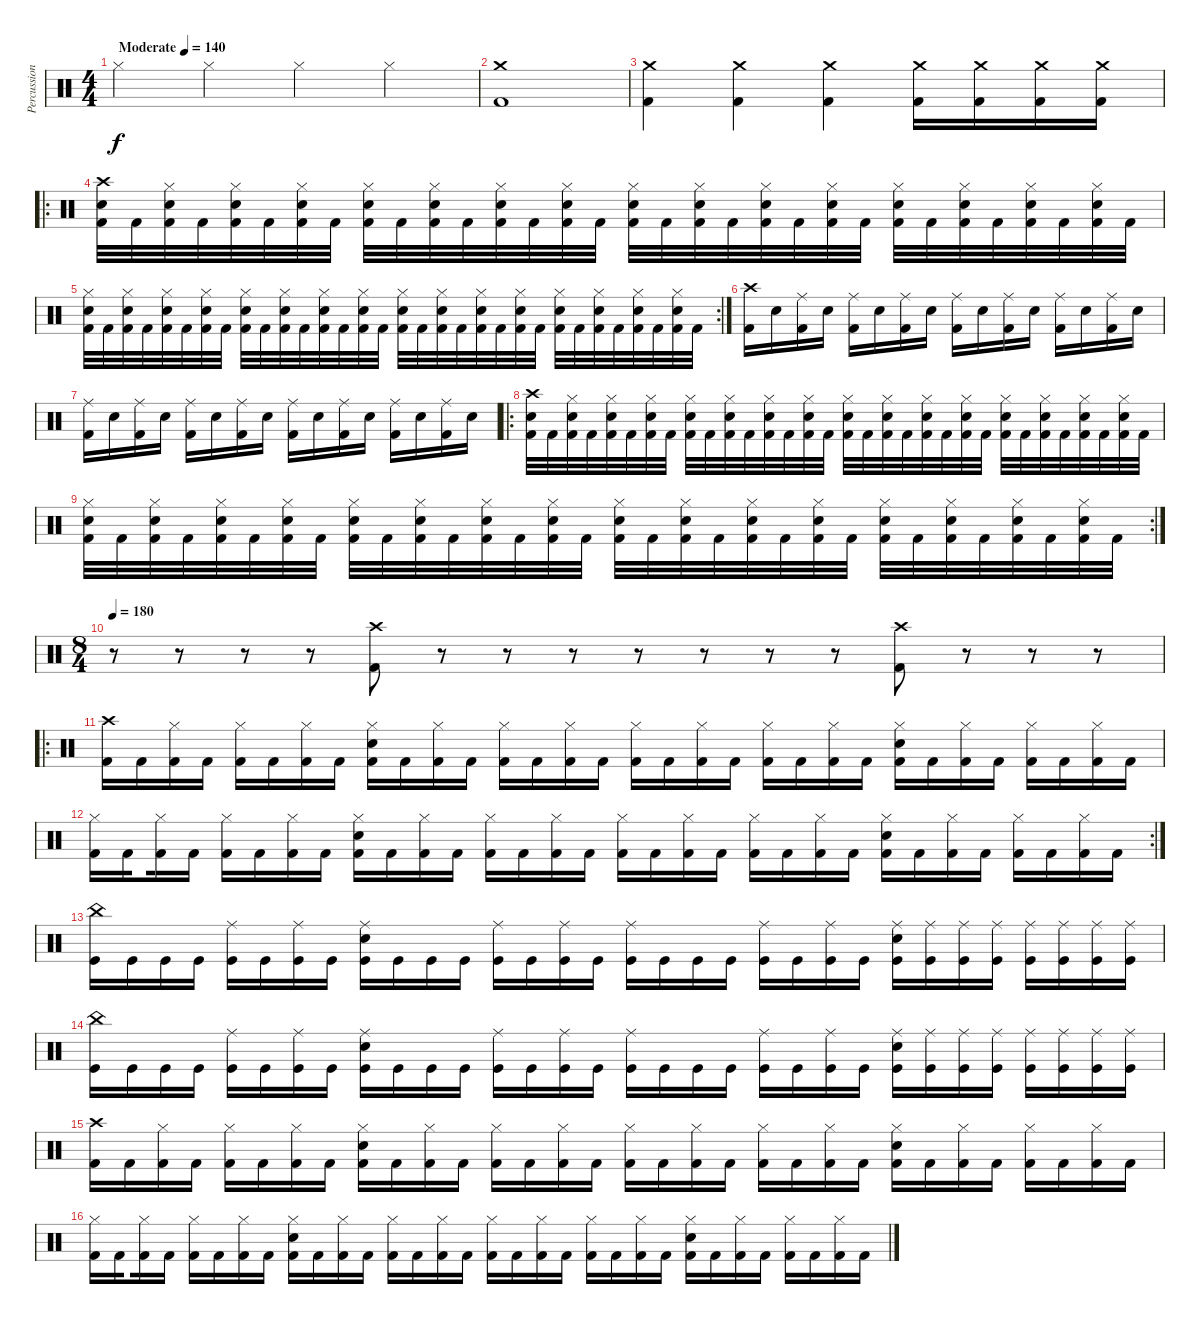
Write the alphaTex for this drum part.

\track ("Percussion" "Percussion") {instrument percussion}
\staff {score}
\articulation defaults
\ts (4 4)
\tempo (140 "Moderate")
\clef neutral
\ks c "Hi-Hat (closed)".4{dy f} "Hi-Hat (closed)".4 "Hi-Hat (closed)".4 "Hi-Hat (closed)".4
|
("Crash medium (hit)" "Kick (hit) 2").1 |
("Crash medium (hit)" "Kick (hit) 2").4 ("Crash medium (hit)" "Kick (hit) 2").4 ("Crash medium (hit)" "Kick (hit) 2").4 ("Crash medium (hit)" "Kick (hit) 2").16 ("Crash medium (hit)" "Kick (hit) 2").16 ("Crash medium (hit)" "Kick (hit) 2").16 ("Crash medium (hit)" "Kick (hit) 2").16 |
\ro
("Crash high (hit)" "Electric Snare (hit)" "Kick (hit) 2").32 "Kick (hit) 2".32 ("Hi-Hat (closed)" "Electric Snare (hit)" "Kick (hit) 2").32 "Kick (hit) 2".32 ("Hi-Hat (closed)" "Electric Snare (hit)" "Kick (hit) 2").32 "Kick (hit) 2".32 ("Hi-Hat (closed)" "Electric Snare (hit)" "Kick (hit) 2").32 "Kick (hit) 2".32 ("Hi-Hat (closed)" "Electric Snare (hit)" "Kick (hit) 2").32 "Kick (hit) 2".32 ("Hi-Hat (closed)" "Electric Snare (hit)" "Kick (hit) 2").32 "Kick (hit) 2".32 ("Hi-Hat (closed)" "Electric Snare (hit)" "Kick (hit) 2").32 "Kick (hit) 2".32 ("Hi-Hat (closed)" "Electric Snare (hit)" "Kick (hit) 2").32 "Kick (hit) 2".32 ("Hi-Hat (closed)" "Electric Snare (hit)" "Kick (hit) 2").32 "Kick (hit) 2".32 ("Hi-Hat (closed)" "Electric Snare (hit)" "Kick (hit) 2").32 "Kick (hit) 2".32 ("Hi-Hat (closed)" "Electric Snare (hit)" "Kick (hit) 2").32 "Kick (hit) 2".32 ("Hi-Hat (closed)" "Electric Snare (hit)" "Kick (hit) 2").32 "Kick (hit) 2".32 ("Hi-Hat (closed)" "Electric Snare (hit)" "Kick (hit) 2").32 "Kick (hit) 2".32 ("Hi-Hat (closed)" "Electric Snare (hit)" "Kick (hit) 2").32 "Kick (hit) 2".32 ("Hi-Hat (closed)" "Electric Snare (hit)" "Kick (hit) 2").32 "Kick (hit) 2".32 ("Hi-Hat (closed)" "Electric Snare (hit)" "Kick (hit) 2").32 "Kick (hit) 2".32 |
\rc 2
("Hi-Hat (closed)" "Electric Snare (hit)" "Kick (hit) 2").32 "Kick (hit) 2".32 ("Hi-Hat (closed)" "Electric Snare (hit)" "Kick (hit) 2").32 "Kick (hit) 2".32 ("Hi-Hat (closed)" "Electric Snare (hit)" "Kick (hit) 2").32 "Kick (hit) 2".32 ("Hi-Hat (closed)" "Electric Snare (hit)" "Kick (hit) 2").32 "Kick (hit) 2".32 ("Hi-Hat (closed)" "Electric Snare (hit)" "Kick (hit) 2").32 "Kick (hit) 2".32 ("Hi-Hat (closed)" "Electric Snare (hit)" "Kick (hit) 2").32 "Kick (hit) 2".32 ("Hi-Hat (closed)" "Electric Snare (hit)" "Kick (hit) 2").32 "Kick (hit) 2".32 ("Hi-Hat (closed)" "Electric Snare (hit)" "Kick (hit) 2").32 "Kick (hit) 2".32 ("Hi-Hat (closed)" "Electric Snare (hit)" "Kick (hit) 2").32 "Kick (hit) 2".32 ("Hi-Hat (closed)" "Electric Snare (hit)" "Kick (hit) 2").32 "Kick (hit) 2".32 ("Hi-Hat (closed)" "Electric Snare (hit)" "Kick (hit) 2").32 "Kick (hit) 2".32 ("Hi-Hat (closed)" "Electric Snare (hit)" "Kick (hit) 2").32 "Kick (hit) 2".32 ("Hi-Hat (closed)" "Electric Snare (hit)" "Kick (hit) 2").32 "Kick (hit) 2".32 ("Hi-Hat (closed)" "Electric Snare (hit)" "Kick (hit) 2").32 "Kick (hit) 2".32 ("Hi-Hat (closed)" "Electric Snare (hit)" "Kick (hit) 2").32 "Kick (hit) 2".32 ("Hi-Hat (closed)" "Electric Snare (hit)" "Kick (hit) 2").32 "Kick (hit) 2".32 |
("Crash high (hit)" "Kick (hit) 2").16 "Electric Snare (hit)".16 ("Ride (middle)" "Kick (hit) 2").16 "Electric Snare (hit)".16 ("Ride (middle)" "Kick (hit) 2").16 "Electric Snare (hit)".16 ("Ride (middle)" "Kick (hit) 2").16 "Electric Snare (hit)".16 ("Ride (middle)" "Kick (hit) 2").16 "Electric Snare (hit)".16 ("Ride (middle)" "Kick (hit) 2").16 "Electric Snare (hit)".16 ("Ride (middle)" "Kick (hit) 2").16 "Electric Snare (hit)".16 ("Ride (middle)" "Kick (hit) 2").16 "Electric Snare (hit)".16 |
("Ride (middle)" "Kick (hit) 2").16 "Electric Snare (hit)".16 ("Ride (middle)" "Kick (hit) 2").16 "Electric Snare (hit)".16 ("Ride (middle)" "Kick (hit) 2").16 "Electric Snare (hit)".16 ("Ride (middle)" "Kick (hit) 2").16 "Electric Snare (hit)".16 ("Ride (middle)" "Kick (hit) 2").16 "Electric Snare (hit)".16 ("Ride (middle)" "Kick (hit) 2").16 "Electric Snare (hit)".16 ("Ride (middle)" "Kick (hit) 2").16 "Electric Snare (hit)".16 ("Ride (middle)" "Kick (hit) 2").16 "Electric Snare (hit)".16 |
\ro
("Crash high (hit)" "Electric Snare (hit)" "Kick (hit) 2").32 "Kick (hit) 2".32 ("Hi-Hat (closed)" "Electric Snare (hit)" "Kick (hit) 2").32 "Kick (hit) 2".32 ("Hi-Hat (closed)" "Electric Snare (hit)" "Kick (hit) 2").32 "Kick (hit) 2".32 ("Hi-Hat (closed)" "Electric Snare (hit)" "Kick (hit) 2").32 "Kick (hit) 2".32 ("Hi-Hat (closed)" "Electric Snare (hit)" "Kick (hit) 2").32 "Kick (hit) 2".32 ("Hi-Hat (closed)" "Electric Snare (hit)" "Kick (hit) 2").32 "Kick (hit) 2".32 ("Hi-Hat (closed)" "Electric Snare (hit)" "Kick (hit) 2").32 "Kick (hit) 2".32 ("Hi-Hat (closed)" "Electric Snare (hit)" "Kick (hit) 2").32 "Kick (hit) 2".32 ("Hi-Hat (closed)" "Electric Snare (hit)" "Kick (hit) 2").32 "Kick (hit) 2".32 ("Hi-Hat (closed)" "Electric Snare (hit)" "Kick (hit) 2").32 "Kick (hit) 2".32 ("Hi-Hat (closed)" "Electric Snare (hit)" "Kick (hit) 2").32 "Kick (hit) 2".32 ("Hi-Hat (closed)" "Electric Snare (hit)" "Kick (hit) 2").32 "Kick (hit) 2".32 ("Hi-Hat (closed)" "Electric Snare (hit)" "Kick (hit) 2").32 "Kick (hit) 2".32 ("Hi-Hat (closed)" "Electric Snare (hit)" "Kick (hit) 2").32 "Kick (hit) 2".32 ("Hi-Hat (closed)" "Electric Snare (hit)" "Kick (hit) 2").32 "Kick (hit) 2".32 ("Hi-Hat (closed)" "Electric Snare (hit)" "Kick (hit) 2").32 "Kick (hit) 2".32 |
\rc 2
("Hi-Hat (closed)" "Electric Snare (hit)" "Kick (hit) 2").32 "Kick (hit) 2".32 ("Hi-Hat (closed)" "Electric Snare (hit)" "Kick (hit) 2").32 "Kick (hit) 2".32 ("Hi-Hat (closed)" "Electric Snare (hit)" "Kick (hit) 2").32 "Kick (hit) 2".32 ("Hi-Hat (closed)" "Electric Snare (hit)" "Kick (hit) 2").32 "Kick (hit) 2".32 ("Hi-Hat (closed)" "Electric Snare (hit)" "Kick (hit) 2").32 "Kick (hit) 2".32 ("Hi-Hat (closed)" "Electric Snare (hit)" "Kick (hit) 2").32 "Kick (hit) 2".32 ("Hi-Hat (closed)" "Electric Snare (hit)" "Kick (hit) 2").32 "Kick (hit) 2".32 ("Hi-Hat (closed)" "Electric Snare (hit)" "Kick (hit) 2").32 "Kick (hit) 2".32 ("Hi-Hat (closed)" "Electric Snare (hit)" "Kick (hit) 2").32 "Kick (hit) 2".32 ("Hi-Hat (closed)" "Electric Snare (hit)" "Kick (hit) 2").32 "Kick (hit) 2".32 ("Hi-Hat (closed)" "Electric Snare (hit)" "Kick (hit) 2").32 "Kick (hit) 2".32 ("Hi-Hat (closed)" "Electric Snare (hit)" "Kick (hit) 2").32 "Kick (hit) 2".32 ("Hi-Hat (closed)" "Electric Snare (hit)" "Kick (hit) 2").32 "Kick (hit) 2".32 ("Hi-Hat (closed)" "Electric Snare (hit)" "Kick (hit) 2").32 "Kick (hit) 2".32 ("Hi-Hat (closed)" "Electric Snare (hit)" "Kick (hit) 2").32 "Kick (hit) 2".32 ("Hi-Hat (closed)" "Electric Snare (hit)" "Kick (hit) 2").32 "Kick (hit) 2".32 |
\ts (8 4)
\tempo 180
r.8 r.8 r.8 r.8 ("Crash high (hit)" "Kick (hit) 2").8 r.8 r.8 r.8 r.8 r.8 r.8 r.8 ("Crash high (hit)" "Kick (hit) 2").8 r.8 r.8 r.8 |
\ro
("Crash high (hit)" "Kick (hit) 2").16 "Kick (hit) 2".16 ("Hi-Hat (closed)" "Kick (hit) 2").16 "Kick (hit) 2".16 ("Hi-Hat (closed)" "Kick (hit) 2").16 "Kick (hit) 2".16 ("Hi-Hat (closed)" "Kick (hit) 2").16 "Kick (hit) 2".16 ("Hi-Hat (closed)" "Electric Snare (hit)" "Kick (hit) 2").16 "Kick (hit) 2".16 ("Hi-Hat (closed)" "Kick (hit) 2").16 "Kick (hit) 2".16 ("Hi-Hat (closed)" "Kick (hit) 2").16 "Kick (hit) 2".16 ("Hi-Hat (closed)" "Kick (hit) 2").16 "Kick (hit) 2".16 ("Hi-Hat (closed)" "Kick (hit) 2").16 "Kick (hit) 2".16 ("Hi-Hat (closed)" "Kick (hit) 2").16 "Kick (hit) 2".16 ("Hi-Hat (closed)" "Kick (hit) 2").16 "Kick (hit) 2".16 ("Hi-Hat (closed)" "Kick (hit) 2").16 "Kick (hit) 2".16 ("Hi-Hat (closed)" "Electric Snare (hit)" "Kick (hit) 2").16 "Kick (hit) 2".16 ("Hi-Hat (closed)" "Kick (hit) 2").16 "Kick (hit) 2".16 ("Hi-Hat (closed)" "Kick (hit) 2").16 "Kick (hit) 2".16 ("Hi-Hat (closed)" "Kick (hit) 2").16 "Kick (hit) 2".16 |
\rc 2
("Hi-Hat (closed)" "Kick (hit) 2").16 "Kick (hit) 2".16{beam splitsecondary} ("Hi-Hat (closed)" "Kick (hit) 2").16 "Kick (hit) 2".16 ("Hi-Hat (closed)" "Kick (hit) 2").16 "Kick (hit) 2".16 ("Hi-Hat (closed)" "Kick (hit) 2").16 "Kick (hit) 2".16 ("Hi-Hat (closed)" "Electric Snare (hit)" "Kick (hit) 2").16 "Kick (hit) 2".16 ("Hi-Hat (closed)" "Kick (hit) 2").16 "Kick (hit) 2".16 ("Hi-Hat (closed)" "Kick (hit) 2").16 "Kick (hit) 2".16 ("Hi-Hat (closed)" "Kick (hit) 2").16 "Kick (hit) 2".16 ("Hi-Hat (closed)" "Kick (hit) 2").16 "Kick (hit) 2".16 ("Hi-Hat (closed)" "Kick (hit) 2").16 "Kick (hit) 2".16 ("Hi-Hat (closed)" "Kick (hit) 2").16 "Kick (hit) 2".16 ("Hi-Hat (closed)" "Kick (hit) 2").16 "Kick (hit) 2".16 ("Hi-Hat (closed)" "Electric Snare (hit)" "Kick (hit) 2").16 "Kick (hit) 2".16 ("Hi-Hat (closed)" "Kick (hit) 2").16 "Kick (hit) 2".16 ("Hi-Hat (closed)" "Kick (hit) 2").16 "Kick (hit) 2".16 ("Hi-Hat (closed)" "Kick (hit) 2").16 "Kick (hit) 2".16 |
("China (hit)" "Kick (hit)").16 "Kick (hit)".16 "Kick (hit)".16 "Kick (hit)".16 ("Ride (middle)" "Kick (hit)").16 "Kick (hit)".16 ("Ride (middle)" "Kick (hit)").16 "Kick (hit)".16 ("Ride (middle)" "Snare (hit) 2" "Kick (hit)").16 "Kick (hit)".16 "Kick (hit)".16 "Kick (hit)".16 ("Ride (middle)" "Kick (hit)").16 "Kick (hit)".16 ("Ride (middle)" "Kick (hit)").16 "Kick (hit)".16 ("Ride (middle)" "Kick (hit)").16 "Kick (hit)".16 "Kick (hit)".16 "Kick (hit)".16 ("Ride (middle)" "Kick (hit)").16 "Kick (hit)".16 ("Ride (middle)" "Kick (hit)").16 "Kick (hit)".16 ("Ride (middle)" "Snare (hit) 2" "Kick (hit)").16 ("Ride (middle)" "Kick (hit)").16 ("Ride (middle)" "Kick (hit)").16 ("Ride (middle)" "Kick (hit)").16 ("Ride (middle)" "Kick (hit)").16 ("Ride (middle)" "Kick (hit)").16 ("Ride (middle)" "Kick (hit)").16 ("Ride (middle)" "Kick (hit)").16 |
("China (hit)" "Kick (hit)").16 "Kick (hit)".16 "Kick (hit)".16 "Kick (hit)".16 ("Ride (middle)" "Kick (hit)").16 "Kick (hit)".16 ("Ride (middle)" "Kick (hit)").16 "Kick (hit)".16 ("Ride (middle)" "Snare (hit) 2" "Kick (hit)").16 "Kick (hit)".16 "Kick (hit)".16 "Kick (hit)".16 ("Ride (middle)" "Kick (hit)").16 "Kick (hit)".16 ("Ride (middle)" "Kick (hit)").16 "Kick (hit)".16 ("Ride (middle)" "Kick (hit)").16 "Kick (hit)".16 "Kick (hit)".16 "Kick (hit)".16 ("Ride (middle)" "Kick (hit)").16 "Kick (hit)".16 ("Ride (middle)" "Kick (hit)").16 "Kick (hit)".16 ("Ride (middle)" "Snare (hit) 2" "Kick (hit)").16 ("Ride (middle)" "Kick (hit)").16 ("Ride (middle)" "Kick (hit)").16 ("Ride (middle)" "Kick (hit)").16 ("Ride (middle)" "Kick (hit)").16 ("Ride (middle)" "Kick (hit)").16 ("Ride (middle)" "Kick (hit)").16 ("Ride (middle)" "Kick (hit)").16 |
("Crash high (hit)" "Kick (hit) 2").16 "Kick (hit) 2".16 ("Hi-Hat (closed)" "Kick (hit) 2").16 "Kick (hit) 2".16 ("Hi-Hat (closed)" "Kick (hit) 2").16 "Kick (hit) 2".16 ("Hi-Hat (closed)" "Kick (hit) 2").16 "Kick (hit) 2".16 ("Hi-Hat (closed)" "Electric Snare (hit)" "Kick (hit) 2").16 "Kick (hit) 2".16 ("Hi-Hat (closed)" "Kick (hit) 2").16 "Kick (hit) 2".16 ("Hi-Hat (closed)" "Kick (hit) 2").16 "Kick (hit) 2".16 ("Hi-Hat (closed)" "Kick (hit) 2").16 "Kick (hit) 2".16 ("Hi-Hat (closed)" "Kick (hit) 2").16 "Kick (hit) 2".16 ("Hi-Hat (closed)" "Kick (hit) 2").16 "Kick (hit) 2".16 ("Hi-Hat (closed)" "Kick (hit) 2").16 "Kick (hit) 2".16 ("Hi-Hat (closed)" "Kick (hit) 2").16 "Kick (hit) 2".16 ("Hi-Hat (closed)" "Electric Snare (hit)" "Kick (hit) 2").16 "Kick (hit) 2".16 ("Hi-Hat (closed)" "Kick (hit) 2").16 "Kick (hit) 2".16 ("Hi-Hat (closed)" "Kick (hit) 2").16 "Kick (hit) 2".16 ("Hi-Hat (closed)" "Kick (hit) 2").16 "Kick (hit) 2".16 |
("Hi-Hat (closed)" "Kick (hit) 2").16 "Kick (hit) 2".16{beam splitsecondary} ("Hi-Hat (closed)" "Kick (hit) 2").16 "Kick (hit) 2".16 ("Hi-Hat (closed)" "Kick (hit) 2").16 "Kick (hit) 2".16 ("Hi-Hat (closed)" "Kick (hit) 2").16 "Kick (hit) 2".16 ("Hi-Hat (closed)" "Electric Snare (hit)" "Kick (hit) 2").16 "Kick (hit) 2".16 ("Hi-Hat (closed)" "Kick (hit) 2").16 "Kick (hit) 2".16 ("Hi-Hat (closed)" "Kick (hit) 2").16 "Kick (hit) 2".16 ("Hi-Hat (closed)" "Kick (hit) 2").16 "Kick (hit) 2".16 ("Hi-Hat (closed)" "Kick (hit) 2").16 "Kick (hit) 2".16 ("Hi-Hat (closed)" "Kick (hit) 2").16 "Kick (hit) 2".16 ("Hi-Hat (closed)" "Kick (hit) 2").16 "Kick (hit) 2".16 ("Hi-Hat (closed)" "Kick (hit) 2").16 "Kick (hit) 2".16 ("Hi-Hat (closed)" "Electric Snare (hit)" "Kick (hit) 2").16 "Kick (hit) 2".16 ("Hi-Hat (closed)" "Kick (hit) 2").16 "Kick (hit) 2".16 ("Hi-Hat (closed)" "Kick (hit) 2").16 "Kick (hit) 2".16 ("Hi-Hat (closed)" "Kick (hit) 2").16 "Kick (hit) 2".16
